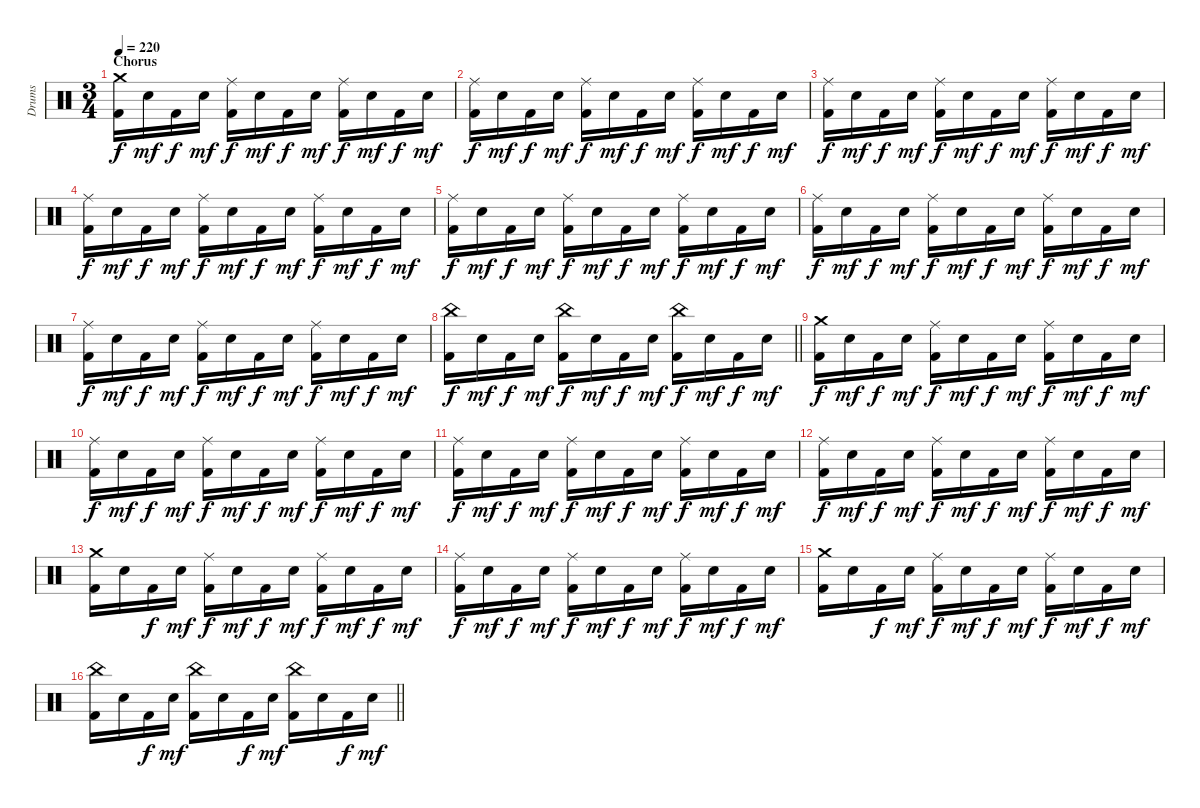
\track ("Drums" "Drums") {instrument percussion}
\staff {score}
\articulation defaults
\ts (3 4)
\section ("" "Chorus")
\tempo 220
\clef neutral
\ks c
("Crash medium (hit)" "Kick (hit) 2").16{dy f} "Electric Snare (hit)".16{dy mf} "Kick (hit) 2".16{dy f} "Electric Snare (hit)".16{dy mf} ("Ride (middle)" "Kick (hit) 2").16{dy f} "Electric Snare (hit)".16{dy mf} "Kick (hit) 2".16{dy f} "Electric Snare (hit)".16{dy mf} ("Ride (middle)" "Kick (hit) 2").16{dy f} "Electric Snare (hit)".16{dy mf} "Kick (hit) 2".16{dy f} "Electric Snare (hit)".16{dy mf} |
("Ride (middle)" "Kick (hit) 2").16{dy f} "Electric Snare (hit)".16{dy mf} "Kick (hit) 2".16{dy f} "Electric Snare (hit)".16{dy mf} ("Ride (middle)" "Kick (hit) 2").16{dy f} "Electric Snare (hit)".16{dy mf} "Kick (hit) 2".16{dy f} "Electric Snare (hit)".16{dy mf} ("Ride (middle)" "Kick (hit) 2").16{dy f} "Electric Snare (hit)".16{dy mf} "Kick (hit) 2".16{dy f} "Electric Snare (hit)".16{dy mf} |
("Ride (middle)" "Kick (hit) 2").16{dy f} "Electric Snare (hit)".16{dy mf} "Kick (hit) 2".16{dy f} "Electric Snare (hit)".16{dy mf} ("Ride (middle)" "Kick (hit) 2").16{dy f} "Electric Snare (hit)".16{dy mf} "Kick (hit) 2".16{dy f} "Electric Snare (hit)".16{dy mf} ("Ride (middle)" "Kick (hit) 2").16{dy f} "Electric Snare (hit)".16{dy mf} "Kick (hit) 2".16{dy f} "Electric Snare (hit)".16{dy mf} |
("Ride (middle)" "Kick (hit) 2").16{dy f} "Electric Snare (hit)".16{dy mf} "Kick (hit) 2".16{dy f} "Electric Snare (hit)".16{dy mf} ("Ride (middle)" "Kick (hit) 2").16{dy f} "Electric Snare (hit)".16{dy mf} "Kick (hit) 2".16{dy f} "Electric Snare (hit)".16{dy mf} ("Ride (middle)" "Kick (hit) 2").16{dy f} "Electric Snare (hit)".16{dy mf} "Kick (hit) 2".16{dy f} "Electric Snare (hit)".16{dy mf} |
("Ride (middle)" "Kick (hit) 2").16{dy f} "Electric Snare (hit)".16{dy mf} "Kick (hit) 2".16{dy f} "Electric Snare (hit)".16{dy mf} ("Ride (middle)" "Kick (hit) 2").16{dy f} "Electric Snare (hit)".16{dy mf} "Kick (hit) 2".16{dy f} "Electric Snare (hit)".16{dy mf} ("Ride (middle)" "Kick (hit) 2").16{dy f} "Electric Snare (hit)".16{dy mf} "Kick (hit) 2".16{dy f} "Electric Snare (hit)".16{dy mf} |
("Ride (middle)" "Kick (hit) 2").16{dy f} "Electric Snare (hit)".16{dy mf} "Kick (hit) 2".16{dy f} "Electric Snare (hit)".16{dy mf} ("Ride (middle)" "Kick (hit) 2").16{dy f} "Electric Snare (hit)".16{dy mf} "Kick (hit) 2".16{dy f} "Electric Snare (hit)".16{dy mf} ("Ride (middle)" "Kick (hit) 2").16{dy f} "Electric Snare (hit)".16{dy mf} "Kick (hit) 2".16{dy f} "Electric Snare (hit)".16{dy mf} |
("Ride (middle)" "Kick (hit) 2").16{dy f} "Electric Snare (hit)".16{dy mf} "Kick (hit) 2".16{dy f} "Electric Snare (hit)".16{dy mf} ("Ride (middle)" "Kick (hit) 2").16{dy f} "Electric Snare (hit)".16{dy mf} "Kick (hit) 2".16{dy f} "Electric Snare (hit)".16{dy mf} ("Ride (middle)" "Kick (hit) 2").16{dy f} "Electric Snare (hit)".16{dy mf} "Kick (hit) 2".16{dy f} "Electric Snare (hit)".16{dy mf} |
\barLineRight lightlight
("China (hit)" "Kick (hit) 2").16{dy f} "Electric Snare (hit)".16{dy mf} "Kick (hit) 2".16{dy f} "Electric Snare (hit)".16{dy mf} ("China (hit)" "Kick (hit) 2").16{dy f} "Electric Snare (hit)".16{dy mf} "Kick (hit) 2".16{dy f} "Electric Snare (hit)".16{dy mf} ("China (hit)" "Kick (hit) 2").16{dy f} "Electric Snare (hit)".16{dy mf} "Kick (hit) 2".16{dy f} "Electric Snare (hit)".16{dy mf} |
("Crash medium (hit)" "Kick (hit) 2").16{dy f} "Electric Snare (hit)".16{dy mf} "Kick (hit) 2".16{dy f} "Electric Snare (hit)".16{dy mf} ("Ride (middle)" "Kick (hit) 2").16{dy f} "Electric Snare (hit)".16{dy mf} "Kick (hit) 2".16{dy f} "Electric Snare (hit)".16{dy mf} ("Ride (middle)" "Kick (hit) 2").16{dy f} "Electric Snare (hit)".16{dy mf} "Kick (hit) 2".16{dy f} "Electric Snare (hit)".16{dy mf} |
("Ride (middle)" "Kick (hit) 2").16{dy f} "Electric Snare (hit)".16{dy mf} "Kick (hit) 2".16{dy f} "Electric Snare (hit)".16{dy mf} ("Ride (middle)" "Kick (hit) 2").16{dy f} "Electric Snare (hit)".16{dy mf} "Kick (hit) 2".16{dy f} "Electric Snare (hit)".16{dy mf} ("Ride (middle)" "Kick (hit) 2").16{dy f} "Electric Snare (hit)".16{dy mf} "Kick (hit) 2".16{dy f} "Electric Snare (hit)".16{dy mf} |
("Ride (middle)" "Kick (hit) 2").16{dy f} "Electric Snare (hit)".16{dy mf} "Kick (hit) 2".16{dy f} "Electric Snare (hit)".16{dy mf} ("Ride (middle)" "Kick (hit) 2").16{dy f} "Electric Snare (hit)".16{dy mf} "Kick (hit) 2".16{dy f} "Electric Snare (hit)".16{dy mf} ("Ride (middle)" "Kick (hit) 2").16{dy f} "Electric Snare (hit)".16{dy mf} "Kick (hit) 2".16{dy f} "Electric Snare (hit)".16{dy mf} |
("Ride (middle)" "Kick (hit) 2").16{dy f} "Electric Snare (hit)".16{dy mf} "Kick (hit) 2".16{dy f} "Electric Snare (hit)".16{dy mf} ("Ride (middle)" "Kick (hit) 2").16{dy f} "Electric Snare (hit)".16{dy mf} "Kick (hit) 2".16{dy f} "Electric Snare (hit)".16{dy mf} ("Ride (middle)" "Kick (hit) 2").16{dy f} "Electric Snare (hit)".16{dy mf} "Kick (hit) 2".16{dy f} "Electric Snare (hit)".16{dy mf} |
("Crash medium (hit)" "Kick (hit) 2").16 "Electric Snare (hit)".16 "Kick (hit) 2".16{dy f} "Electric Snare (hit)".16{dy mf} ("Ride (middle)" "Kick (hit) 2").16{dy f} "Electric Snare (hit)".16{dy mf} "Kick (hit) 2".16{dy f} "Electric Snare (hit)".16{dy mf} ("Ride (middle)" "Kick (hit) 2").16{dy f} "Electric Snare (hit)".16{dy mf} "Kick (hit) 2".16{dy f} "Electric Snare (hit)".16{dy mf} |
("Ride (middle)" "Kick (hit) 2").16{dy f} "Electric Snare (hit)".16{dy mf} "Kick (hit) 2".16{dy f} "Electric Snare (hit)".16{dy mf} ("Ride (middle)" "Kick (hit) 2").16{dy f} "Electric Snare (hit)".16{dy mf} "Kick (hit) 2".16{dy f} "Electric Snare (hit)".16{dy mf} ("Ride (middle)" "Kick (hit) 2").16{dy f} "Electric Snare (hit)".16{dy mf} "Kick (hit) 2".16{dy f} "Electric Snare (hit)".16{dy mf} |
("Crash medium (hit)" "Kick (hit) 2").16 "Electric Snare (hit)".16 "Kick (hit) 2".16{dy f} "Electric Snare (hit)".16{dy mf} ("Ride (middle)" "Kick (hit) 2").16{dy f} "Electric Snare (hit)".16{dy mf} "Kick (hit) 2".16{dy f} "Electric Snare (hit)".16{dy mf} ("Ride (middle)" "Kick (hit) 2").16{dy f} "Electric Snare (hit)".16{dy mf} "Kick (hit) 2".16{dy f} "Electric Snare (hit)".16{dy mf} |
\barLineRight lightlight
("China (hit)" "Kick (hit) 2").16 "Electric Snare (hit)".16 "Kick (hit) 2".16{dy f} "Electric Snare (hit)".16{dy mf} ("China (hit)" "Kick (hit) 2").16 "Electric Snare (hit)".16 "Kick (hit) 2".16{dy f} "Electric Snare (hit)".16{dy mf} ("China (hit)" "Kick (hit) 2").16 "Electric Snare (hit)".16 "Kick (hit) 2".16{dy f} "Electric Snare (hit)".16{dy mf}
